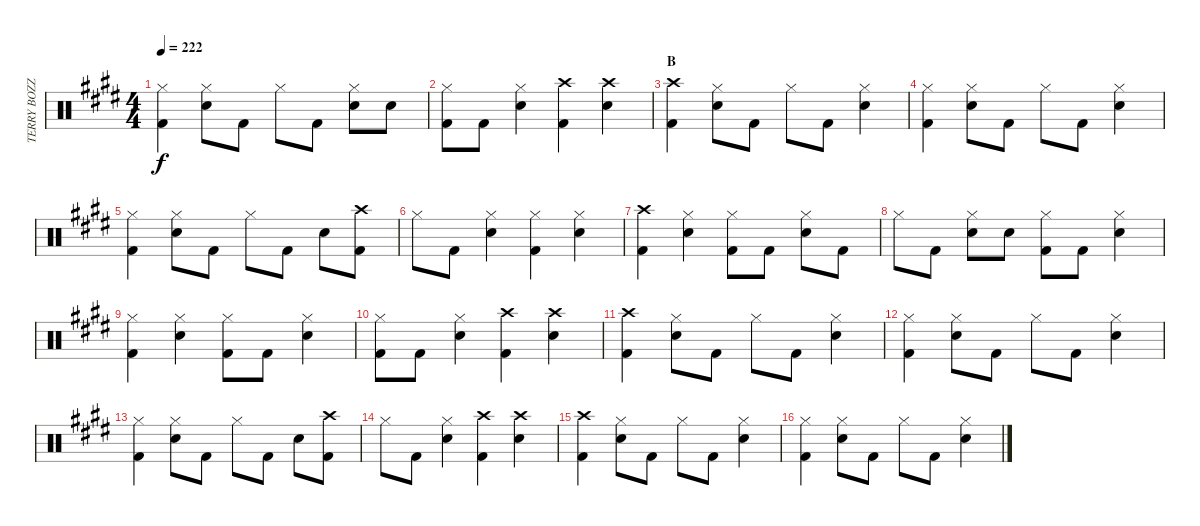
\track ("TERRY BOZZIO" "TERRY BOZZ") {instrument percussion}
\staff {score}
\articulation defaults
\ts (4 4)
\tempo 222
\clef neutral
\ks c#minor
("Hi-Hat (closed)" "Kick (hit) 2").4{dy f} ("Hi-Hat (closed)" "Snare (hit) 2").8 "Kick (hit) 2".8 "Hi-Hat (closed)".8 "Kick (hit) 2".8 ("Hi-Hat (closed)" "Snare (hit) 2").8 "Snare (hit) 2".8 |
("Hi-Hat (closed)" "Kick (hit) 2").8 "Kick (hit) 2".8 ("Hi-Hat (closed)" "Snare (hit) 2").4 ("Crash high (hit)" "Kick (hit) 2").4 ("Crash high (hit)" "Snare (hit) 2").4 |
\section ("" "B")
("Crash high (hit)" "Kick (hit) 2").4 ("Hi-Hat (closed)" "Snare (hit) 2").8 "Kick (hit) 2".8 "Hi-Hat (closed)".8 "Kick (hit) 2".8 ("Hi-Hat (closed)" "Snare (hit) 2").4 |
("Hi-Hat (closed)" "Kick (hit) 2").4 ("Hi-Hat (closed)" "Snare (hit) 2").8 "Kick (hit) 2".8 "Hi-Hat (closed)".8 "Kick (hit) 2".8 ("Hi-Hat (closed)" "Snare (hit) 2").4 |
("Hi-Hat (closed)" "Kick (hit) 2").4 ("Hi-Hat (closed)" "Snare (hit) 2").8 "Kick (hit) 2".8 "Hi-Hat (closed)".8 "Kick (hit) 2".8 "Snare (hit) 2".8 ("Crash high (hit)" "Kick (hit) 2").8 |
"Hi-Hat (closed)".8 "Kick (hit) 2".8 ("Hi-Hat (closed)" "Snare (hit) 2").4 ("Hi-Hat (closed)" "Kick (hit) 2").4 ("Hi-Hat (closed)" "Snare (hit) 2").4 |
("Crash high (hit)" "Kick (hit) 2").4 ("Hi-Hat (closed)" "Snare (hit) 2").4 ("Hi-Hat (closed)" "Kick (hit) 2").8 "Kick (hit) 2".8 ("Hi-Hat (closed)" "Snare (hit) 2").8 "Kick (hit) 2".8 |
"Hi-Hat (closed)".8 "Kick (hit) 2".8 ("Hi-Hat (closed)" "Snare (hit) 2").8 "Snare (hit) 2".8 ("Hi-Hat (closed)" "Kick (hit) 2").8 "Kick (hit) 2".8 ("Hi-Hat (closed)" "Snare (hit) 2").4 |
("Hi-Hat (closed)" "Kick (hit) 2").4 ("Hi-Hat (closed)" "Snare (hit) 2").4 ("Hi-Hat (closed)" "Kick (hit) 2").8 "Kick (hit) 2".8 ("Hi-Hat (closed)" "Snare (hit) 2").4 |
("Hi-Hat (closed)" "Kick (hit) 2").8 "Kick (hit) 2".8 ("Hi-Hat (closed)" "Snare (hit) 2").4 ("Crash high (hit)" "Kick (hit) 2").4 ("Crash high (hit)" "Snare (hit) 2").4 |
("Crash high (hit)" "Kick (hit) 2").4 ("Hi-Hat (closed)" "Snare (hit) 2").8 "Kick (hit) 2".8 "Hi-Hat (closed)".8 "Kick (hit) 2".8 ("Hi-Hat (closed)" "Snare (hit) 2").4 |
("Hi-Hat (closed)" "Kick (hit) 2").4 ("Hi-Hat (closed)" "Snare (hit) 2").8 "Kick (hit) 2".8 "Hi-Hat (closed)".8 "Kick (hit) 2".8 ("Hi-Hat (closed)" "Snare (hit) 2").4 |
("Hi-Hat (closed)" "Kick (hit) 2").4 ("Hi-Hat (closed)" "Snare (hit) 2").8 "Kick (hit) 2".8 "Hi-Hat (closed)".8 "Kick (hit) 2".8 "Snare (hit) 2".8 ("Crash high (hit)" "Kick (hit) 2").8 |
"Hi-Hat (closed)".8 "Kick (hit) 2".8 ("Hi-Hat (closed)" "Snare (hit) 2").4 ("Crash high (hit)" "Kick (hit) 2").4 ("Crash high (hit)" "Snare (hit) 2").4 |
("Crash high (hit)" "Kick (hit) 2").4 ("Hi-Hat (closed)" "Snare (hit) 2").8 "Kick (hit) 2".8 "Hi-Hat (closed)".8 "Kick (hit) 2".8 ("Hi-Hat (closed)" "Snare (hit) 2").4 |
("Hi-Hat (closed)" "Kick (hit) 2").4 ("Hi-Hat (closed)" "Snare (hit) 2").8 "Kick (hit) 2".8 "Hi-Hat (closed)".8 "Kick (hit) 2".8 ("Hi-Hat (closed)" "Snare (hit) 2").4
